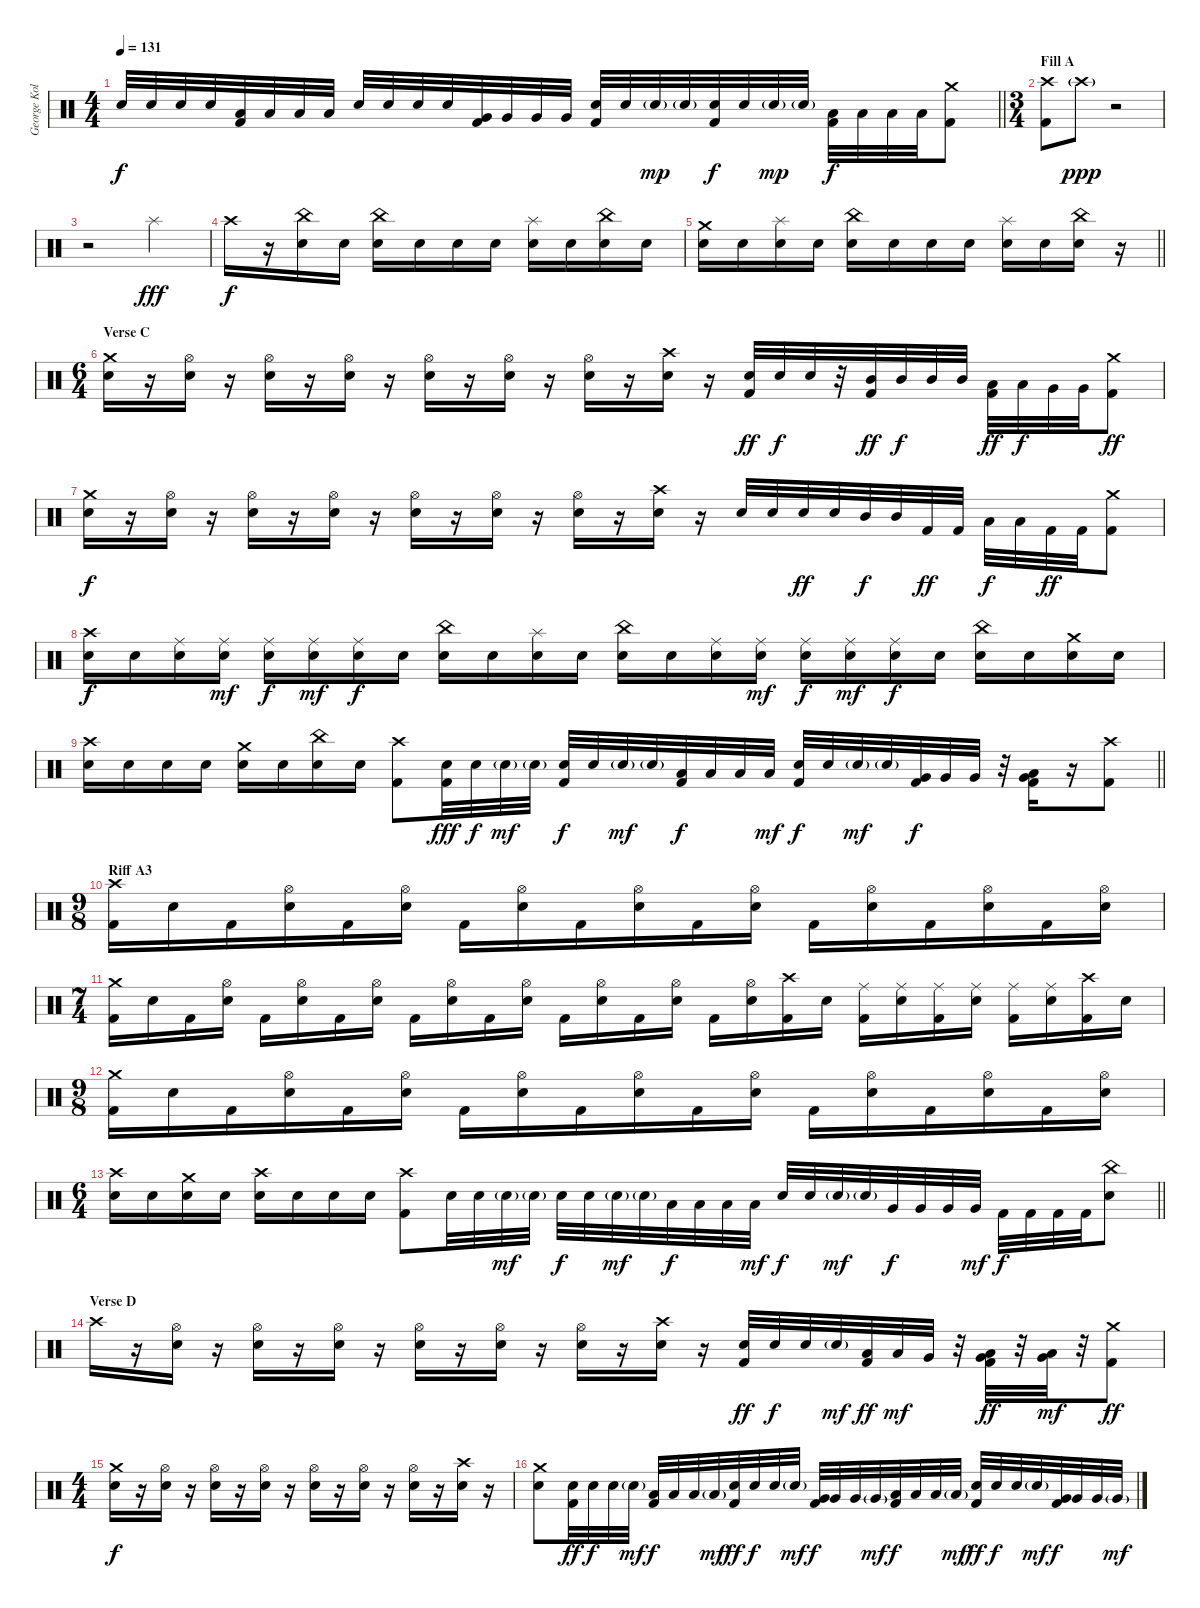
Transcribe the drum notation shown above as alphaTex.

\track ("George Kollias" "George Kol") {instrument percussion}
\staff {score}
\articulation defaults
\ts (4 4)
\tempo 131
\clef neutral
\barLineRight lightlight
\ks c "Electric Snare (hit)".32{dy f} "Electric Snare (hit)".32 "Electric Snare (hit)".32 "Electric Snare (hit)".32
("Low Tom (hit)" "Kick (hit) 2").32 "Low Tom (hit)".32 "Low Tom (hit)".32 "Low Tom (hit)".32 "Electric Snare (hit)".32 "Electric Snare (hit)".32 "Electric Snare (hit)".32 "Electric Snare (hit)".32 ("Very Low Tom (hit)" "Kick (hit) 2").32 "Very Low Tom (hit)".32 "Very Low Tom (hit)".32 "Very Low Tom (hit)".32 ("Electric Snare (hit)" "Kick (hit) 2").32 "Electric Snare (hit)".32 "Electric Snare (hit)"{g}.32{dy mp} "Electric Snare (hit)"{g}.32 ("Electric Snare (hit)" "Kick (hit) 2").32{dy f} "Electric Snare (hit)".32 "Electric Snare (hit)"{g}.32{dy mp} "Electric Snare (hit)"{g}.32 ("Low Tom (hit)" "Kick (hit) 2").32{dy f} "Low Tom (hit)".32 "Low Tom (hit)".32 "Low Tom (hit)".32 ("Crash medium (hit)" "Kick (hit) 2").8 |
\ts (3 4)
\section ("" "Fill A")
("Crash high (hit)" "Kick (hit) 2").8 "Crash high (hit)"{g}.8{dy ppp} r.2 |
r.2 "Splash (hit)".4{dy fff} |
"Crash high (hit)".16{dy f} r.16 ("China (hit)" "Electric Snare (hit)").16 "Electric Snare (hit)".16 ("China (hit)" "Electric Snare (hit)").16 "Electric Snare (hit)".16 "Electric Snare (hit)".16 "Electric Snare (hit)".16 ("Splash (hit)" "Electric Snare (hit)").16 "Electric Snare (hit)".16 ("China (hit)" "Electric Snare (hit)").16 "Electric Snare (hit)".16 |
\barLineRight lightlight
("Crash medium (hit)" "Electric Snare (hit)").16 "Electric Snare (hit)".16 ("Splash (hit)" "Electric Snare (hit)").16 "Electric Snare (hit)".16 ("China (hit)" "Electric Snare (hit)").16 "Electric Snare (hit)".16 "Electric Snare (hit)".16 "Electric Snare (hit)".16 ("Splash (hit)" "Electric Snare (hit)").16 "Electric Snare (hit)".16 ("China (hit)" "Electric Snare (hit)").16 r.16 |
\ts (6 4)
\section ("" "Verse C")
("Crash medium (hit)" "Electric Snare (hit)").16 r.16 ("Hi-Hat (open)" "Electric Snare (hit)").16 r.16 ("Hi-Hat (open)" "Electric Snare (hit)").16 r.16 ("Hi-Hat (open)" "Electric Snare (hit)").16 r.16 ("Hi-Hat (open)" "Electric Snare (hit)").16 r.16 ("Hi-Hat (open)" "Electric Snare (hit)").16 r.16 ("Hi-Hat (open)" "Electric Snare (hit)").16 r.16 ("Crash high (hit)" "Electric Snare (hit)").16 r.16 ("Electric Snare (hit)" "Kick (hit) 2").32{dy ff} "Electric Snare (hit)".32{dy f} "Electric Snare (hit)".32 r.32 ("Mid Tom (hit)" "Kick (hit) 2").32{dy ff} "Mid Tom (hit)".32{dy f} "Mid Tom (hit)".32 "Mid Tom (hit)".32 ("Low Tom (hit)" "Kick (hit) 2").32{dy ff} "Low Tom (hit)".32{dy f} "Very Low Tom (hit)".32 "Very Low Tom (hit)".32 ("Crash medium (hit)" "Kick (hit) 2").8{dy ff} |
("Crash medium (hit)" "Electric Snare (hit)").16{dy f} r.16 ("Hi-Hat (open)" "Electric Snare (hit)").16 r.16 ("Hi-Hat (open)" "Electric Snare (hit)").16 r.16 ("Hi-Hat (open)" "Electric Snare (hit)").16 r.16 ("Hi-Hat (open)" "Electric Snare (hit)").16 r.16 ("Hi-Hat (open)" "Electric Snare (hit)").16 r.16 ("Hi-Hat (open)" "Electric Snare (hit)").16 r.16 ("Crash high (hit)" "Electric Snare (hit)").16 r.16 "Electric Snare (hit)".32 "Electric Snare (hit)".32 "Electric Snare (hit)".32{dy ff} "Electric Snare (hit)".32 "Mid Tom (hit)".32{dy f} "Mid Tom (hit)".32 "Kick (hit) 2".32{dy ff} "Kick (hit) 2".32 "Low Tom (hit)".32{dy f} "Low Tom (hit)".32 "Kick (hit) 2".32{dy ff} "Kick (hit) 2".32 ("Crash medium (hit)" "Kick (hit) 2").8 |
("Crash high (hit)" "Electric Snare (hit)").16{dy f} "Electric Snare (hit)".16 ("Ride (middle)" "Electric Snare (hit)").16 ("Ride (middle)" "Electric Snare (hit)").16{dy mf} ("Ride (middle)" "Electric Snare (hit)").16{dy f} ("Ride (middle)" "Electric Snare (hit)").16{dy mf} ("Ride (middle)" "Electric Snare (hit)").16{dy f} "Electric Snare (hit)".16 ("China (hit)" "Electric Snare (hit)").16 "Electric Snare (hit)".16 ("Splash (hit)" "Electric Snare (hit)").16 "Electric Snare (hit)".16 ("China (hit)" "Electric Snare (hit)").16 "Electric Snare (hit)".16 ("Ride (middle)" "Electric Snare (hit)").16 ("Ride (middle)" "Electric Snare (hit)").16{dy mf} ("Ride (middle)" "Electric Snare (hit)").16{dy f} ("Ride (middle)" "Electric Snare (hit)").16{dy mf} ("Ride (middle)" "Electric Snare (hit)").16{dy f} "Electric Snare (hit)".16 ("China (hit)" "Electric Snare (hit)").16 "Electric Snare (hit)".16 ("Crash medium (hit)" "Electric Snare (hit)").16 "Electric Snare (hit)".16 |
\barLineRight lightlight
("Crash high (hit)" "Electric Snare (hit)").16 "Electric Snare (hit)".16 "Electric Snare (hit)".16 "Electric Snare (hit)".16 ("Crash medium (hit)" "Electric Snare (hit)").16 "Electric Snare (hit)".16 ("China (hit)" "Electric Snare (hit)").16 "Electric Snare (hit)".16 ("Crash high (hit)" "Kick (hit) 2").8 ("Electric Snare (hit)" "Kick (hit) 2").32{dy fff} "Electric Snare (hit)".32{dy f} "Electric Snare (hit)"{g}.32{dy mf} "Electric Snare (hit)"{g}.32 ("Electric Snare (hit)" "Kick (hit) 2").32{dy f} "Electric Snare (hit)".32 "Electric Snare (hit)"{g}.32{dy mf} "Electric Snare (hit)"{g}.32 ("Low Tom (hit)" "Kick (hit) 2").32{dy f} "Low Tom (hit)".32 "Low Tom (hit)".32 "Low Tom (hit)".32{dy mf} ("Electric Snare (hit)" "Kick (hit) 2").32{dy f} "Electric Snare (hit)".32 "Electric Snare (hit)"{g}.32{dy mf} "Electric Snare (hit)"{g}.32 ("Very Low Tom (hit)" "Kick (hit) 2").32{dy f} "Very Low Tom (hit)".32 "Very Low Tom (hit)".32 r.32 ("Very Low Tom (hit)" "Low Floor Tom (hit)" "Kick (hit) 2").16 r.16 ("Crash high (hit)" "Kick (hit) 2").8 |
\ts (9 8)
\section ("" "Riff A3")
("Crash high (hit)" "Kick (hit) 2").16 "Electric Snare (hit)".16 "Kick (hit) 2".16 ("Hi-Hat (open)" "Electric Snare (hit)").16 "Kick (hit) 2".16 ("Hi-Hat (open)" "Electric Snare (hit)").16 "Kick (hit) 2".16 ("Hi-Hat (open)" "Electric Snare (hit)").16 "Kick (hit) 2".16 ("Hi-Hat (open)" "Electric Snare (hit)").16 "Kick (hit) 2".16 ("Hi-Hat (open)" "Electric Snare (hit)").16 "Kick (hit) 2".16 ("Hi-Hat (open)" "Electric Snare (hit)").16 "Kick (hit) 2".16 ("Hi-Hat (open)" "Electric Snare (hit)").16 "Kick (hit) 2".16 ("Hi-Hat (open)" "Electric Snare (hit)").16 |
\ts (7 4)
("Crash medium (hit)" "Kick (hit) 2").16 "Electric Snare (hit)".16 "Kick (hit) 2".16 ("Hi-Hat (open)" "Electric Snare (hit)").16 "Kick (hit) 2".16 ("Hi-Hat (open)" "Electric Snare (hit)").16 "Kick (hit) 2".16 ("Hi-Hat (open)" "Electric Snare (hit)").16 "Kick (hit) 2".16 ("Hi-Hat (open)" "Electric Snare (hit)").16 "Kick (hit) 2".16 ("Hi-Hat (open)" "Electric Snare (hit)").16 "Kick (hit) 2".16 ("Hi-Hat (open)" "Electric Snare (hit)").16 "Kick (hit) 2".16 ("Hi-Hat (open)" "Electric Snare (hit)").16 "Kick (hit) 2".16 ("Hi-Hat (open)" "Electric Snare (hit)").16 ("Crash high (hit)" "Kick (hit) 2").16 "Electric Snare (hit)".16 ("Ride (middle)" "Kick (hit) 2").16 ("Ride (middle)" "Electric Snare (hit)").16 ("Ride (middle)" "Kick (hit) 2").16 ("Ride (middle)" "Electric Snare (hit)").16 ("Ride (middle)" "Kick (hit) 2").16 ("Ride (middle)" "Electric Snare (hit)").16 ("Crash high (hit)" "Kick (hit) 2").16 "Electric Snare (hit)".16 |
\ts (9 8)
("Crash medium (hit)" "Kick (hit) 2").16 "Electric Snare (hit)".16 "Kick (hit) 2".16 ("Hi-Hat (open)" "Electric Snare (hit)").16 "Kick (hit) 2".16 ("Hi-Hat (open)" "Electric Snare (hit)").16 "Kick (hit) 2".16 ("Hi-Hat (open)" "Electric Snare (hit)").16 "Kick (hit) 2".16 ("Hi-Hat (open)" "Electric Snare (hit)").16 "Kick (hit) 2".16 ("Hi-Hat (open)" "Electric Snare (hit)").16 "Kick (hit) 2".16 ("Hi-Hat (open)" "Electric Snare (hit)").16 "Kick (hit) 2".16 ("Hi-Hat (open)" "Electric Snare (hit)").16 "Kick (hit) 2".16 ("Hi-Hat (open)" "Electric Snare (hit)").16 |
\ts (6 4)
\barLineRight lightlight
("Crash high (hit)" "Electric Snare (hit)").16 "Electric Snare (hit)".16 ("Crash medium (hit)" "Electric Snare (hit)").16 "Electric Snare (hit)".16 ("Crash high (hit)" "Electric Snare (hit)").16 "Electric Snare (hit)".16 "Electric Snare (hit)".16 "Electric Snare (hit)".16 ("Crash high (hit)" "Kick (hit) 2").8 "Electric Snare (hit)".32 "Electric Snare (hit)".32 "Electric Snare (hit)"{g}.32{dy mf} "Electric Snare (hit)"{g}.32 "Electric Snare (hit)".32{dy f} "Electric Snare (hit)".32 "Electric Snare (hit)"{g}.32{dy mf} "Electric Snare (hit)"{g}.32 "Low Tom (hit)".32{dy f} "Low Tom (hit)".32 "Low Tom (hit)".32 "Low Tom (hit)".32{dy mf} "Electric Snare (hit)".32{dy f} "Electric Snare (hit)".32 "Electric Snare (hit)"{g}.32{dy mf} "Electric Snare (hit)"{g}.32 "Very Low Tom (hit)".32{dy f} "Very Low Tom (hit)".32 "Very Low Tom (hit)".32 "Very Low Tom (hit)".32{dy mf} "Kick (hit) 2".32{dy f} "Kick (hit) 2".32 "Kick (hit) 2".32 "Kick (hit) 2".32 ("China (hit)" "Electric Snare (hit)").8 |
\section ("" "Verse D")
"Crash high (hit)".16 r.16 ("Hi-Hat (open)" "Electric Snare (hit)").16 r.16 ("Hi-Hat (open)" "Electric Snare (hit)").16 r.16 ("Hi-Hat (open)" "Electric Snare (hit)").16 r.16 ("Hi-Hat (open)" "Electric Snare (hit)").16 r.16 ("Hi-Hat (open)" "Electric Snare (hit)").16 r.16 ("Hi-Hat (open)" "Electric Snare (hit)").16 r.16 ("Crash high (hit)" "Electric Snare (hit)").16 r.16 ("Electric Snare (hit)" "Kick (hit) 2").32{dy ff} "Electric Snare (hit)".32{dy f} "Electric Snare (hit)".32 "Electric Snare (hit)"{g}.32{dy mf} ("Low Tom (hit)" "Kick (hit) 2").32{dy ff} "Low Tom (hit)".32{dy mf} "Very Low Tom (hit)".32 r.32 ("Low Tom (hit)" "Very Low Tom (hit)" "Kick (hit) 2").32{dy ff} r.32 ("Very Low Tom (hit)" "Low Floor Tom (hit)").32{dy mf} r.32 ("Crash medium (hit)" "Kick (hit) 2").8{dy ff} |
\ts (4 4)
("Crash medium (hit)" "Electric Snare (hit)").16{dy f} r.16 ("Hi-Hat (open)" "Electric Snare (hit)").16 r.16 ("Hi-Hat (open)" "Electric Snare (hit)").16 r.16 ("Hi-Hat (open)" "Electric Snare (hit)").16 r.16 ("Hi-Hat (open)" "Electric Snare (hit)").16 r.16 ("Hi-Hat (open)" "Electric Snare (hit)").16 r.16 ("Hi-Hat (open)" "Electric Snare (hit)").16 r.16 ("Crash high (hit)" "Electric Snare (hit)").16 r.16 |
("Crash medium (hit)" "Electric Snare (hit)").8 ("Electric Snare (hit)" "Kick (hit) 2").32{dy ff} "Electric Snare (hit)".32{dy f} "Electric Snare (hit)".32 "Electric Snare (hit)"{g}.32{dy mf} ("Low Tom (hit)" "Kick (hit) 2").32{dy f} "Low Tom (hit)".32 "Low Tom (hit)".32 "Low Tom (hit)"{g}.32{dy mf} ("Electric Snare (hit)" "Kick (hit) 2").32{dy ff} "Electric Snare (hit)".32{dy f} "Electric Snare (hit)".32 "Electric Snare (hit)"{g}.32{dy mf} ("Very Low Tom (hit)" "Kick (hit) 2").32{dy f} "Very Low Tom (hit)".32 "Very Low Tom (hit)".32 "Very Low Tom (hit)"{g}.32{dy mf} ("Low Floor Tom (hit)" "Kick (hit) 2").32{dy f} "Low Floor Tom (hit)".32 "Low Floor Tom (hit)".32 "Low Floor Tom (hit)"{g}.32{dy mf} ("Electric Snare (hit)" "Kick (hit) 2").32{dy ff} "Electric Snare (hit)".32{dy f} "Electric Snare (hit)".32 "Electric Snare (hit)"{g}.32{dy mf} ("Very Low Tom (hit)" "Kick (hit) 2").32{dy f} "Very Low Tom (hit)".32 "Very Low Tom (hit)".32 "Very Low Tom (hit)"{g}.32{dy mf}
